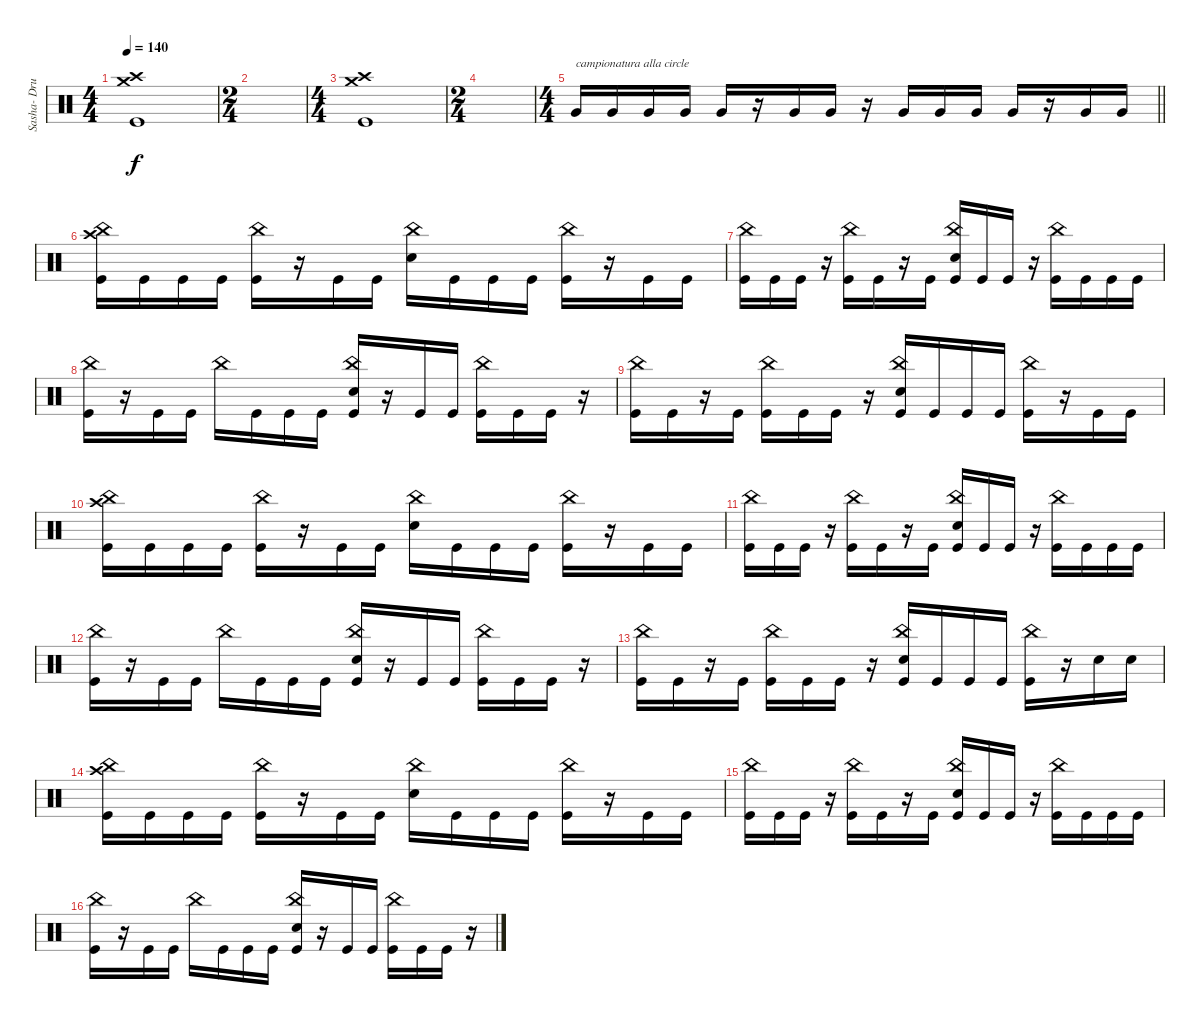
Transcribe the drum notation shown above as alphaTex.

\track ("Sasha- Drums" "Sasha- Dru") {instrument percussion}
\staff {score}
\articulation defaults
\ts (4 4)
\section ("" "")
\tempo 140
\clef neutral
\ks c
("Kick (hit)" "Crash high (hit)" "Crash medium (hit)").1{dy f} |
\ts (2 4)
|
\ts (4 4)
("Kick (hit)" "Crash medium (hit)" "Crash high (hit)").1 |
\ts (2 4)
|
\ts (4 4)
\barLineRight lightlight "Very Low Tom (hit)".16{txt "campionatura alla circle"} "Very Low Tom (hit)".16 "Very Low Tom (hit)".16 "Very Low Tom (hit)".16 "Very Low Tom (hit)".16
r.16 "Very Low Tom (hit)".16 "Very Low Tom (hit)".16 r.16 "Very Low Tom (hit)".16 "Very Low Tom (hit)".16 "Very Low Tom (hit)".16 "Very Low Tom (hit)".16 r.16 "Very Low Tom (hit)".16 "Very Low Tom (hit)".16 |
\section ("" "")
("Kick (hit)" "Crash high (hit)" "China (hit)").16 "Kick (hit)".16 "Kick (hit)".16 "Kick (hit)".16 ("Kick (hit)" "China (hit)").16 r.16 "Kick (hit)".16 "Kick (hit)".16 ("China (hit)" "Snare (hit) 2").16 "Kick (hit)".16 "Kick (hit)".16 "Kick (hit)".16 ("Kick (hit)" "China (hit)").16 r.16 "Kick (hit)".16 "Kick (hit)".16 |
("Kick (hit)" "China (hit)").16 "Kick (hit)".16 "Kick (hit)".16 r.16 ("Kick (hit)" "China (hit)").16 "Kick (hit)".16 r.16 "Kick (hit)".16 ("Kick (hit)" "China (hit)" "Snare (hit) 2").16 "Kick (hit)".16 "Kick (hit)".16 r.16 ("Kick (hit)" "China (hit)").16 "Kick (hit)".16 "Kick (hit)".16 "Kick (hit)".16 |
("Kick (hit)" "China (hit)").16 r.16 "Kick (hit)".16 "Kick (hit)".16 "China (hit)".16 "Kick (hit)".16 "Kick (hit)".16 "Kick (hit)".16 ("Kick (hit)" "China (hit)" "Snare (hit) 2").16 r.16 "Kick (hit)".16 "Kick (hit)".16 ("Kick (hit)" "China (hit)").16 "Kick (hit)".16 "Kick (hit)".16 r.16 |
("Kick (hit)" "China (hit)").16 "Kick (hit)".16 r.16 "Kick (hit)".16 ("Kick (hit)" "China (hit)").16 "Kick (hit)".16 "Kick (hit)".16 r.16 ("Kick (hit)" "China (hit)" "Snare (hit) 2").16 "Kick (hit)".16 "Kick (hit)".16 "Kick (hit)".16 ("Kick (hit)" "China (hit)").16 r.16 "Kick (hit)".16 "Kick (hit)".16 |
("Kick (hit)" "Crash high (hit)" "China (hit)").16 "Kick (hit)".16 "Kick (hit)".16 "Kick (hit)".16 ("Kick (hit)" "China (hit)").16 r.16 "Kick (hit)".16 "Kick (hit)".16 ("China (hit)" "Snare (hit) 2").16 "Kick (hit)".16 "Kick (hit)".16 "Kick (hit)".16 ("Kick (hit)" "China (hit)").16 r.16 "Kick (hit)".16 "Kick (hit)".16 |
("Kick (hit)" "China (hit)").16 "Kick (hit)".16 "Kick (hit)".16 r.16 ("Kick (hit)" "China (hit)").16 "Kick (hit)".16 r.16 "Kick (hit)".16 ("Kick (hit)" "China (hit)" "Snare (hit) 2").16 "Kick (hit)".16 "Kick (hit)".16 r.16 ("Kick (hit)" "China (hit)").16 "Kick (hit)".16 "Kick (hit)".16 "Kick (hit)".16 |
("Kick (hit)" "China (hit)").16 r.16 "Kick (hit)".16 "Kick (hit)".16 "China (hit)".16 "Kick (hit)".16 "Kick (hit)".16 "Kick (hit)".16 ("Kick (hit)" "China (hit)" "Snare (hit) 2").16 r.16 "Kick (hit)".16 "Kick (hit)".16 ("Kick (hit)" "China (hit)").16 "Kick (hit)".16 "Kick (hit)".16 r.16 |
("Kick (hit)" "China (hit)").16 "Kick (hit)".16 r.16 "Kick (hit)".16 ("Kick (hit)" "China (hit)").16 "Kick (hit)".16 "Kick (hit)".16 r.16 ("Kick (hit)" "China (hit)" "Snare (hit) 2").16 "Kick (hit)".16 "Kick (hit)".16 "Kick (hit)".16 ("Kick (hit)" "China (hit)").16 r.16 "Snare (hit) 2".16 "Snare (hit) 2".16 |
("Kick (hit)" "Crash high (hit)" "China (hit)").16 "Kick (hit)".16 "Kick (hit)".16 "Kick (hit)".16 ("Kick (hit)" "China (hit)").16 r.16 "Kick (hit)".16 "Kick (hit)".16 ("China (hit)" "Snare (hit) 2").16 "Kick (hit)".16 "Kick (hit)".16 "Kick (hit)".16 ("Kick (hit)" "China (hit)").16 r.16 "Kick (hit)".16 "Kick (hit)".16 |
("Kick (hit)" "China (hit)").16 "Kick (hit)".16 "Kick (hit)".16 r.16 ("Kick (hit)" "China (hit)").16 "Kick (hit)".16 r.16 "Kick (hit)".16 ("Kick (hit)" "China (hit)" "Snare (hit) 2").16 "Kick (hit)".16 "Kick (hit)".16 r.16 ("Kick (hit)" "China (hit)").16 "Kick (hit)".16 "Kick (hit)".16 "Kick (hit)".16 |
("Kick (hit)" "China (hit)").16 r.16 "Kick (hit)".16 "Kick (hit)".16 "China (hit)".16 "Kick (hit)".16 "Kick (hit)".16 "Kick (hit)".16 ("Kick (hit)" "China (hit)" "Snare (hit) 2").16 r.16 "Kick (hit)".16 "Kick (hit)".16 ("Kick (hit)" "China (hit)").16 "Kick (hit)".16 "Kick (hit)".16 r.16
